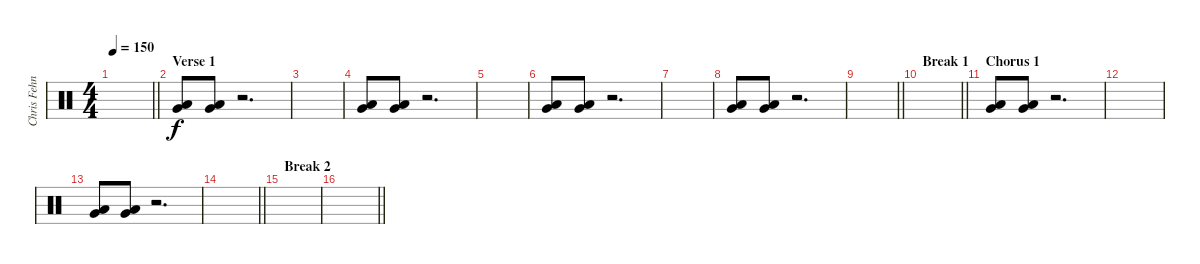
\track ("Chris Fehn" "Chris Fehn") {instrument percussion}
\staff {score}
\articulation defaults
\ts (4 4)
\tempo 150
\clef neutral
\barLineRight lightlight
\ks c
|
\section ("" "Verse 1")
("Very Low Tom (hit)" "Low Floor Tom (hit)").8 ("Very Low Tom (hit)" "Low Floor Tom (hit)").8 r.2{d} |
|
("Very Low Tom (hit)" "Low Floor Tom (hit)").8 ("Very Low Tom (hit)" "Low Floor Tom (hit)").8 r.2{d} |
|
("Very Low Tom (hit)" "Low Floor Tom (hit)").8 ("Very Low Tom (hit)" "Low Floor Tom (hit)").8 r.2{d} |
|
("Very Low Tom (hit)" "Low Floor Tom (hit)").8 ("Very Low Tom (hit)" "Low Floor Tom (hit)").8 r.2{d} |
\barLineRight lightlight
|
\section ("" "Break 1")
\barLineRight lightlight
|
\section ("" "Chorus 1")
("Very Low Tom (hit)" "Low Floor Tom (hit)").8 ("Very Low Tom (hit)" "Low Floor Tom (hit)").8 r.2{d} |
|
("Very Low Tom (hit)" "Low Floor Tom (hit)").8 ("Very Low Tom (hit)" "Low Floor Tom (hit)").8 r.2{d} |
\barLineRight lightlight
|
\section ("" "Break 2")
|
\barLineRight lightlight
